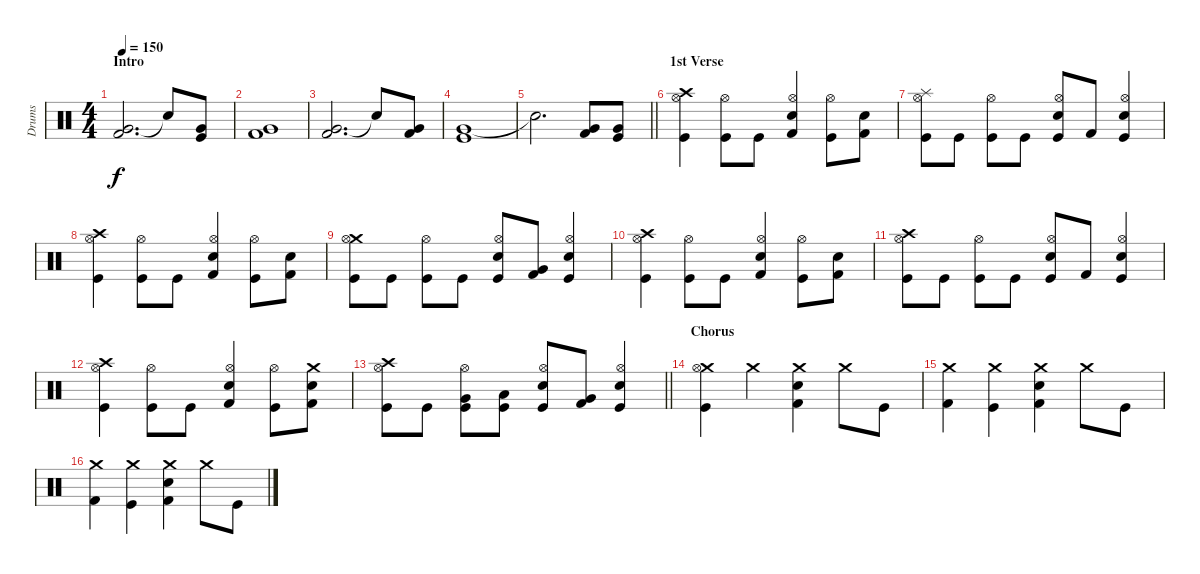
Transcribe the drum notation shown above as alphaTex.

\track ("Drums" "Drums") {instrument percussion}
\staff {score}
\articulation defaults
\ts (4 4)
\section ("" "Intro")
\tempo 150
\clef neutral
\ks c
("Very Low Tom (hit)" "Kick (hit) 2").2{d dy f} "Snare (hit)"{t}.8 ("Very Low Tom (hit)" "Kick (hit)").8 |
("Very Low Tom (hit)" "Kick (hit) 2").1 |
("Very Low Tom (hit)" "Kick (hit) 2").2{d} "Snare (hit)"{t}.8 ("Very Low Tom (hit)" "Kick (hit) 2").8 |
("Very Low Tom (hit)" "Kick (hit)").1 |
\barLineRight lightlight "Snare (hit)"{t}.2{d}
("Very Low Tom (hit)" "Kick (hit) 2").8 ("Very Low Tom (hit)" "Kick (hit)").8 |
\section ("" "1st Verse")
("Crash high (hit)" "Hi-Hat (open)" "Kick (hit)").4 ("Hi-Hat (open)" "Kick (hit)").8 "Kick (hit)".8 ("Hi-Hat (open)" "Electric Snare (hit)" "Kick (hit) 2").4 ("Hi-Hat (open)" "Kick (hit)").8 ("Electric Snare (hit)" "Kick (hit) 2").8 |
("Splash (hit)" "Hi-Hat (open)" "Kick (hit)").8 "Kick (hit)".8 ("Hi-Hat (open)" "Kick (hit)").8 "Kick (hit)".8 ("Hi-Hat (open)" "Electric Snare (hit)" "Kick (hit)").8 "Kick (hit) 2".8 ("Hi-Hat (open)" "Electric Snare (hit)" "Kick (hit)").4 |
("Crash high (hit)" "Hi-Hat (open)" "Kick (hit)").4 ("Hi-Hat (open)" "Kick (hit)").8 "Kick (hit)".8 ("Hi-Hat (open)" "Electric Snare (hit)" "Kick (hit) 2").4 ("Hi-Hat (open)" "Kick (hit)").8 ("Electric Snare (hit)" "Kick (hit) 2").8 |
("Crash medium (hit)" "Hi-Hat (open)" "Kick (hit)").8 "Kick (hit)".8 ("Hi-Hat (open)" "Kick (hit)").8 "Kick (hit)".8 ("Hi-Hat (open)" "Electric Snare (hit)" "Kick (hit)").8 ("Very Low Tom (hit)" "Kick (hit) 2").8 ("Hi-Hat (open)" "Electric Snare (hit)" "Kick (hit)").4 |
("Crash high (hit)" "Hi-Hat (open)" "Kick (hit)").4 ("Hi-Hat (open)" "Kick (hit)").8 "Kick (hit)".8 ("Hi-Hat (open)" "Electric Snare (hit)" "Kick (hit) 2").4 ("Hi-Hat (open)" "Kick (hit)").8 ("Electric Snare (hit)" "Kick (hit) 2").8 |
("Crash high (hit)" "Hi-Hat (open)" "Kick (hit)").8 "Kick (hit)".8 ("Hi-Hat (open)" "Kick (hit)").8 "Kick (hit)".8 ("Hi-Hat (open)" "Electric Snare (hit)" "Kick (hit)").8 "Kick (hit) 2".8 ("Hi-Hat (open)" "Electric Snare (hit)" "Kick (hit)").4 |
("Crash high (hit)" "Hi-Hat (open)" "Kick (hit)").4 ("Hi-Hat (open)" "Kick (hit)").8 "Kick (hit)".8 ("Hi-Hat (open)" "Electric Snare (hit)" "Kick (hit) 2").4 ("Hi-Hat (open)" "Kick (hit)").8 ("Crash medium (hit)" "Electric Snare (hit)" "Kick (hit) 2").8 |
\barLineRight lightlight
("Crash high (hit)" "Hi-Hat (open)" "Kick (hit)").8 "Kick (hit)".8 ("Hi-Hat (open)" "Very Low Tom (hit)" "Kick (hit)").8 ("Low Tom (hit)" "Kick (hit)").8 ("Hi-Hat (open)" "Electric Snare (hit)" "Kick (hit)").8 ("Very Low Tom (hit)" "Kick (hit) 2").8 ("Hi-Hat (open)" "Electric Snare (hit)" "Kick (hit)").4 |
\section ("" "Chorus")
("Crash medium (hit)" "Hi-Hat (open)" "Kick (hit)").4 "Crash medium (hit)".4 ("Crash medium (hit)" "Electric Snare (hit)" "Kick (hit) 2").4 "Crash medium (hit)".8 "Kick (hit)".8 |
("Crash medium (hit)" "Kick (hit) 2").4 ("Crash medium (hit)" "Kick (hit)").4 ("Crash medium (hit)" "Electric Snare (hit)" "Kick (hit) 2").4 "Crash medium (hit)".8 "Kick (hit)".8 |
("Crash medium (hit)" "Kick (hit) 2").4 ("Crash medium (hit)" "Kick (hit)").4 ("Crash medium (hit)" "Electric Snare (hit)" "Kick (hit) 2").4 "Crash medium (hit)".8 "Kick (hit)".8
